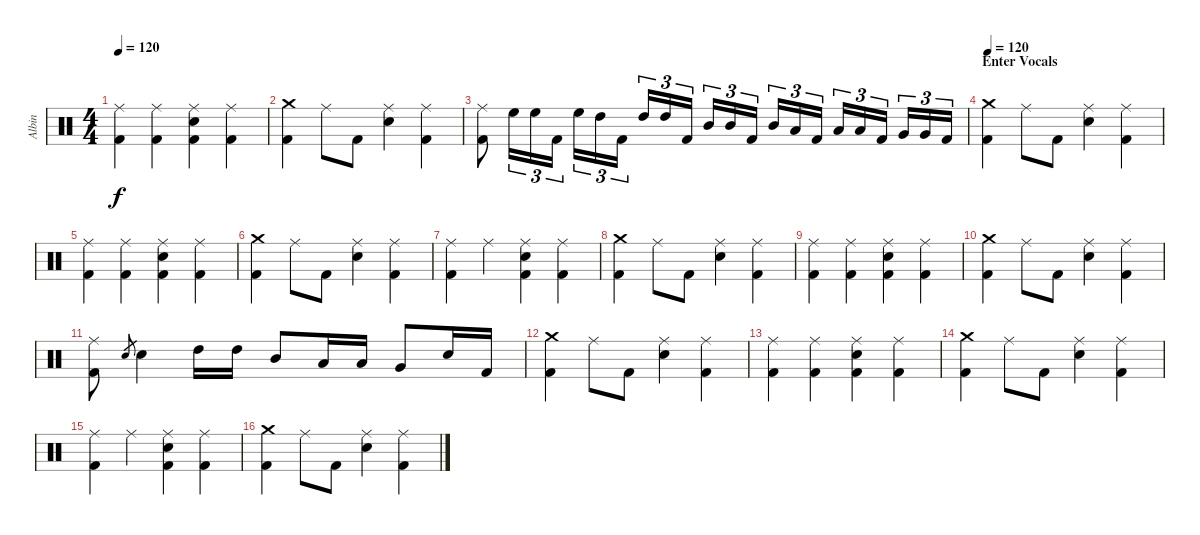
\track ("Albin" "Albin") {instrument percussion}
\staff {score}
\articulation defaults
\ts (4 4)
\tempo 120
\clef neutral
\ks c
("Ride (middle)" "Kick (hit) 2").4{dy f} ("Ride (middle)" "Kick (hit) 2").4 ("Ride (middle)" "Electric Snare (hit)" "Kick (hit) 2").4 ("Ride (middle)" "Kick (hit) 2").4 |
("Crash medium (hit)" "Kick (hit) 2").4 "Ride (middle)".8 "Kick (hit) 2".8 ("Ride (middle)" "Electric Snare (hit)").4 ("Ride (middle)" "Kick (hit) 2").4 |
("Ride (middle)" "Kick (hit) 2").8 "High Floor Tom (hit)".16{tu (3 2)} "High Floor Tom (hit)".16{tu (3 2)} "Kick (hit) 2".16{tu (3 2)} "High Floor Tom (hit)".16{tu (3 2)} "High Tom (hit)".16{tu (3 2)} "Kick (hit) 2".16{tu (3 2)} "High Tom (hit)".16{tu (3 2)} "High Tom (hit)".16{tu (3 2)} "Kick (hit) 2".16{tu (3 2)} "Mid Tom (hit)".16{tu (3 2)} "Mid Tom (hit)".16{tu (3 2)} "Kick (hit) 2".16{tu (3 2)} "Mid Tom (hit)".16{tu (3 2)} "Low Tom (hit)".16{tu (3 2)} "Kick (hit) 2".16{tu (3 2)} "Low Tom (hit)".16{tu (3 2)} "Low Tom (hit)".16{tu (3 2)} "Kick (hit) 2".16{tu (3 2)} "Very Low Tom (hit)".16{tu (3 2)} "Very Low Tom (hit)".16{tu (3 2)} "Kick (hit) 2".16{tu (3 2)} |
\section ("" "Enter Vocals")
\tempo 120
("Crash medium (hit)" "Kick (hit) 2").4 "Ride (middle)".8 "Kick (hit) 2".8 ("Ride (middle)" "Electric Snare (hit)").4 ("Ride (middle)" "Kick (hit) 2").4 |
("Ride (middle)" "Kick (hit) 2").4 ("Ride (middle)" "Kick (hit) 2").4 ("Ride (middle)" "Electric Snare (hit)" "Kick (hit) 2").4 ("Ride (middle)" "Kick (hit) 2").4 |
("Crash medium (hit)" "Kick (hit) 2").4 "Ride (middle)".8 "Kick (hit) 2".8 ("Ride (middle)" "Electric Snare (hit)").4 ("Ride (middle)" "Kick (hit) 2").4 |
("Ride (middle)" "Kick (hit) 2").4 "Ride (middle)".4 ("Ride (middle)" "Electric Snare (hit)" "Kick (hit) 2").4 ("Ride (middle)" "Kick (hit) 2").4 |
("Crash medium (hit)" "Kick (hit) 2").4 "Ride (middle)".8 "Kick (hit) 2".8 ("Ride (middle)" "Electric Snare (hit)").4 ("Ride (middle)" "Kick (hit) 2").4 |
("Ride (middle)" "Kick (hit) 2").4 ("Ride (middle)" "Kick (hit) 2").4 ("Ride (middle)" "Electric Snare (hit)" "Kick (hit) 2").4 ("Ride (middle)" "Kick (hit) 2").4 |
("Crash medium (hit)" "Kick (hit) 2").4 "Ride (middle)".8 "Kick (hit) 2".8 ("Ride (middle)" "Electric Snare (hit)").4 ("Ride (middle)" "Kick (hit) 2").4 |
("Ride (middle)" "Kick (hit) 2").8 "Electric Snare (hit)".8{gr} "Electric Snare (hit)".4 "High Tom (hit)".16 "High Tom (hit)".16 "Mid Tom (hit)".8 "Low Tom (hit)".16 "Low Tom (hit)".16 "Very Low Tom (hit)".8 "Electric Snare (hit)".16 "Kick (hit) 2".16 |
("Crash medium (hit)" "Kick (hit) 2").4 "Ride (middle)".8 "Kick (hit) 2".8 ("Ride (middle)" "Electric Snare (hit)").4 ("Ride (middle)" "Kick (hit) 2").4 |
("Ride (middle)" "Kick (hit) 2").4 ("Ride (middle)" "Kick (hit) 2").4 ("Ride (middle)" "Electric Snare (hit)" "Kick (hit) 2").4 ("Ride (middle)" "Kick (hit) 2").4 |
("Crash medium (hit)" "Kick (hit) 2").4 "Ride (middle)".8 "Kick (hit) 2".8 ("Ride (middle)" "Electric Snare (hit)").4 ("Ride (middle)" "Kick (hit) 2").4 |
("Ride (middle)" "Kick (hit) 2").4 "Ride (middle)".4 ("Ride (middle)" "Electric Snare (hit)" "Kick (hit) 2").4 ("Ride (middle)" "Kick (hit) 2").4 |
("Crash medium (hit)" "Kick (hit) 2").4 "Ride (middle)".8 "Kick (hit) 2".8 ("Ride (middle)" "Electric Snare (hit)").4 ("Ride (middle)" "Kick (hit) 2").4
